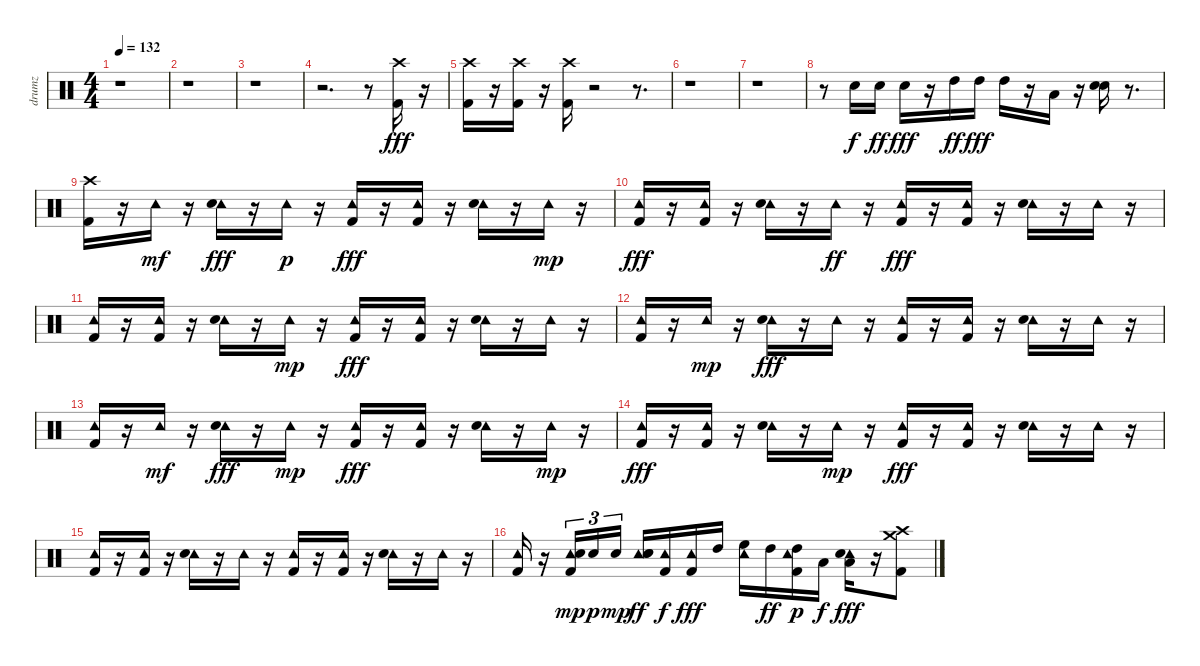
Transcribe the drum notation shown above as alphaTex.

\track ("drumz" "drumz") {instrument percussion}
\staff {score}
\articulation defaults
\ts (4 4)
\tempo 132
\clef neutral
\ks c
r.1{dy fff} |
r.1 |
r.1 |
r.2{d} r.8 ("Crash high (hit)" "Kick (hit) 2").16 r.16 |
("Crash high (hit)" "Kick (hit) 2").16 r.16 ("Crash high (hit)" "Kick (hit) 2").16 r.16 ("Crash high (hit)" "Kick (hit) 2").16 r.2 r.8{d} |
r.1 |
r.1 |
r.8 "Snare (hit) 2".16{dy f} "Snare (hit) 2".16{dy ff} "Snare (hit) 2".16{dy fff} r.16 "High Tom (hit)".16{dy ff} "High Tom (hit)".16{dy fff} "High Tom (hit)".16 r.16 "Low Tom (hit)".16 r.16 ("Snare (hit) 2" "Snare (hit) 2").16 r.8{d} |
("Crash high (hit)" "Kick (hit) 2").16 r.16 "Tambourine (hit)".16{dy mf} r.16 ("Tambourine (hit)" "Snare (hit) 2").16{dy fff} r.16 "Tambourine (hit)".16{dy p} r.16 ("Tambourine (hit)" "Kick (hit) 2").16{dy fff} r.16 ("Tambourine (hit)" "Kick (hit) 2").16 r.16 ("Tambourine (hit)" "Snare (hit) 2").16 r.16 "Tambourine (hit)".16{dy mp} r.16 |
("Tambourine (hit)" "Kick (hit) 2").16{dy fff} r.16 ("Tambourine (hit)" "Kick (hit) 2").16 r.16 ("Tambourine (hit)" "Snare (hit) 2").16 r.16 "Tambourine (hit)".16{dy ff} r.16 ("Tambourine (hit)" "Kick (hit) 2").16{dy fff} r.16 ("Tambourine (hit)" "Kick (hit) 2").16 r.16 ("Tambourine (hit)" "Snare (hit) 2").16 r.16 "Tambourine (hit)".16 r.16 |
("Tambourine (hit)" "Kick (hit) 2").16 r.16 ("Tambourine (hit)" "Kick (hit) 2").16 r.16 ("Tambourine (hit)" "Snare (hit) 2").16 r.16 "Tambourine (hit)".16{dy mp} r.16 ("Tambourine (hit)" "Kick (hit) 2").16{dy fff} r.16 ("Tambourine (hit)" "Kick (hit) 2").16 r.16 ("Tambourine (hit)" "Snare (hit) 2").16 r.16 "Tambourine (hit)".16 r.16 |
("Tambourine (hit)" "Kick (hit) 2").16 r.16 "Tambourine (hit)".16{dy mp} r.16 ("Tambourine (hit)" "Snare (hit) 2").16{dy fff} r.16 "Tambourine (hit)".16 r.16 ("Tambourine (hit)" "Kick (hit) 2").16 r.16 ("Tambourine (hit)" "Kick (hit) 2").16 r.16 ("Tambourine (hit)" "Snare (hit) 2").16 r.16 "Tambourine (hit)".16 r.16 |
("Tambourine (hit)" "Kick (hit) 2").16 r.16 "Tambourine (hit)".16{dy mf} r.16 ("Tambourine (hit)" "Snare (hit) 2").16{dy fff} r.16 "Tambourine (hit)".16{dy mp} r.16 ("Tambourine (hit)" "Kick (hit) 2").16{dy fff} r.16 ("Tambourine (hit)" "Kick (hit) 2").16 r.16 ("Tambourine (hit)" "Snare (hit) 2").16 r.16 "Tambourine (hit)".16{dy mp} r.16 |
("Tambourine (hit)" "Kick (hit) 2").16{dy fff} r.16 ("Tambourine (hit)" "Kick (hit) 2").16 r.16 ("Tambourine (hit)" "Snare (hit) 2").16 r.16 "Tambourine (hit)".16{dy mp} r.16 ("Tambourine (hit)" "Kick (hit) 2").16{dy fff} r.16 ("Tambourine (hit)" "Kick (hit) 2").16 r.16 ("Tambourine (hit)" "Snare (hit) 2").16 r.16 "Tambourine (hit)".16 r.16 |
("Tambourine (hit)" "Kick (hit) 2").16 r.16 ("Tambourine (hit)" "Kick (hit) 2").16 r.16 ("Tambourine (hit)" "Snare (hit) 2").16 r.16 "Tambourine (hit)".16 r.16 ("Tambourine (hit)" "Kick (hit) 2").16 r.16 ("Tambourine (hit)" "Kick (hit) 2").16 r.16 ("Tambourine (hit)" "Snare (hit) 2").16 r.16 "Tambourine (hit)".16 r.16 |
("Tambourine (hit)" "Kick (hit) 2").16 r.16 ("Tambourine (hit)" "Kick (hit) 2" "Snare (hit) 2").16{tu (3 2) dy mp} "Snare (hit) 2".16{tu (3 2) dy p} "Snare (hit) 2".16{tu (3 2) dy mp} ("Tambourine (hit)" "Snare (hit) 2" "Snare (hit) 2").16{dy ff} ("Tambourine (hit)" "Kick (hit) 2").16{dy f} ("Tambourine (hit)" "Kick (hit) 2").16{dy fff} "High Tom (hit)".16 ("Tambourine (hit)" "High Floor Tom (hit)").16 "High Tom (hit)".16{dy ff} ("Tambourine (hit)" "Kick (hit) 2" "High Tom (hit)").16{dy p} "Low Tom (hit)".16{dy f} ("Tambourine (hit)" "Snare (hit) 2" "Low Tom (hit)").16{dy fff} r.16 ("Crash high (hit)" "Kick (hit) 2" "Crash medium (hit)").8
